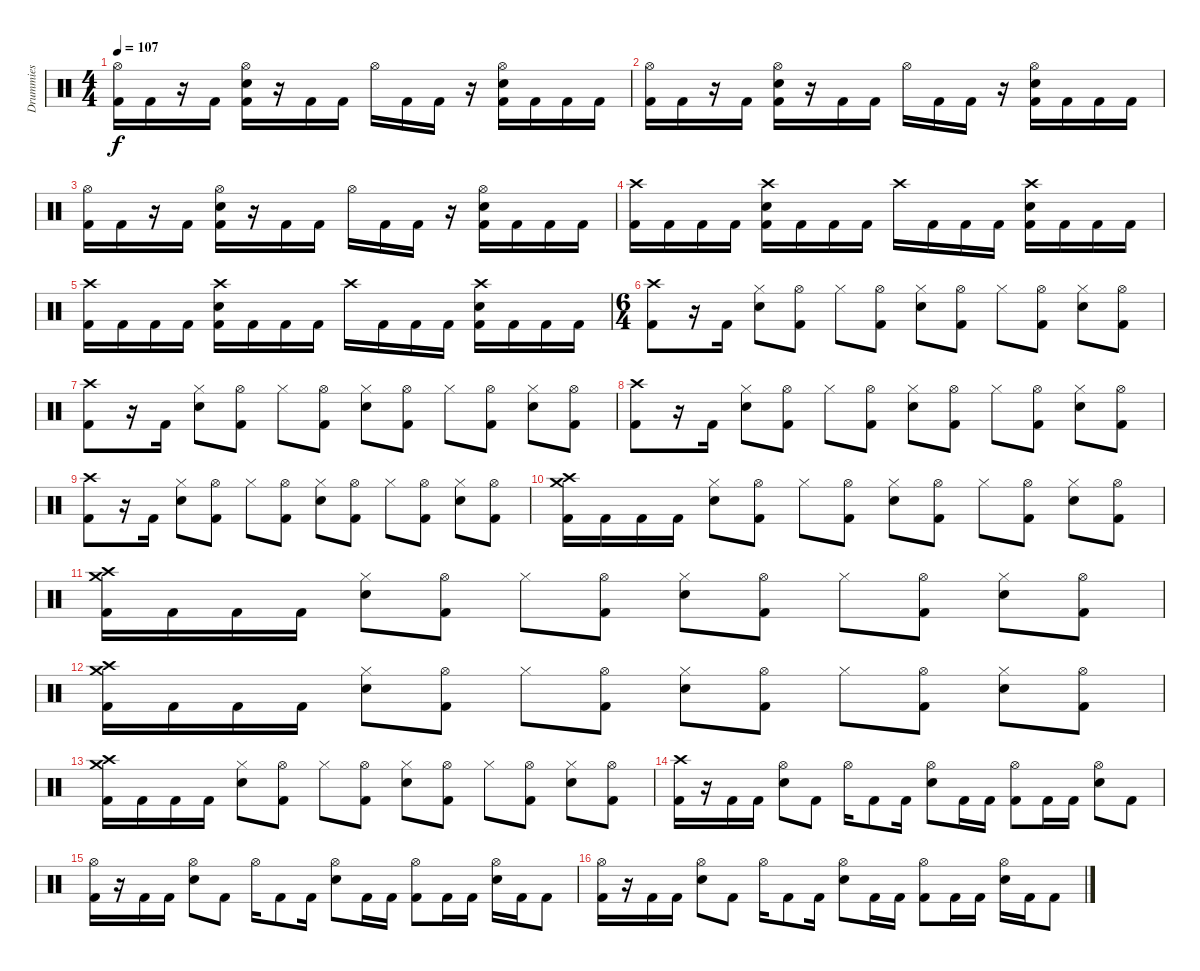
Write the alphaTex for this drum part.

\track ("Drummies" "Drummies") {instrument percussion}
\staff {score}
\articulation defaults
\ts (4 4)
\tempo 107
\clef neutral
\ks c
("Hi-Hat (open)" "Kick (hit) 2").16{dy f} "Kick (hit) 2".16 r.16 "Kick (hit) 2".16 ("Hi-Hat (open)" "Electric Snare (hit)" "Kick (hit) 2").16 r.16 "Kick (hit) 2".16 "Kick (hit) 2".16 "Hi-Hat (open)".16 "Kick (hit) 2".16 "Kick (hit) 2".16 r.16 ("Hi-Hat (open)" "Electric Snare (hit)" "Kick (hit) 2").16 "Kick (hit) 2".16 "Kick (hit) 2".16 "Kick (hit) 2".16 |
("Hi-Hat (open)" "Kick (hit) 2").16 "Kick (hit) 2".16 r.16 "Kick (hit) 2".16 ("Hi-Hat (open)" "Electric Snare (hit)" "Kick (hit) 2").16 r.16 "Kick (hit) 2".16 "Kick (hit) 2".16 "Hi-Hat (open)".16 "Kick (hit) 2".16 "Kick (hit) 2".16 r.16 ("Hi-Hat (open)" "Electric Snare (hit)" "Kick (hit) 2").16 "Kick (hit) 2".16 "Kick (hit) 2".16 "Kick (hit) 2".16 |
("Hi-Hat (open)" "Kick (hit) 2").16 "Kick (hit) 2".16 r.16 "Kick (hit) 2".16 ("Hi-Hat (open)" "Electric Snare (hit)" "Kick (hit) 2").16 r.16 "Kick (hit) 2".16 "Kick (hit) 2".16 "Hi-Hat (open)".16 "Kick (hit) 2".16 "Kick (hit) 2".16 r.16 ("Hi-Hat (open)" "Electric Snare (hit)" "Kick (hit) 2").16 "Kick (hit) 2".16 "Kick (hit) 2".16 "Kick (hit) 2".16 |
("Crash high (hit)" "Kick (hit) 2").16 "Kick (hit) 2".16 "Kick (hit) 2".16 "Kick (hit) 2".16 ("Electric Snare (hit)" "Crash high (hit)" "Kick (hit) 2").16 "Kick (hit) 2".16 "Kick (hit) 2".16 "Kick (hit) 2".16 "Crash high (hit)".16 "Kick (hit) 2".16 "Kick (hit) 2".16 "Kick (hit) 2".16 ("Electric Snare (hit)" "Crash high (hit)" "Kick (hit) 2").16 "Kick (hit) 2".16 "Kick (hit) 2".16 "Kick (hit) 2".16 |
("Crash high (hit)" "Kick (hit) 2").16 "Kick (hit) 2".16 "Kick (hit) 2".16 "Kick (hit) 2".16 ("Electric Snare (hit)" "Crash high (hit)" "Kick (hit) 2").16 "Kick (hit) 2".16 "Kick (hit) 2".16 "Kick (hit) 2".16 "Crash high (hit)".16 "Kick (hit) 2".16 "Kick (hit) 2".16 "Kick (hit) 2".16 ("Electric Snare (hit)" "Crash high (hit)" "Kick (hit) 2").16 "Kick (hit) 2".16 "Kick (hit) 2".16 "Kick (hit) 2".16 |
\ts (6 4)
("Crash high (hit)" "Kick (hit) 2").8 r.16 "Kick (hit) 2".16 ("Hi-Hat (closed)" "Electric Snare (hit)").8 ("Hi-Hat (open)" "Kick (hit) 2").8 "Hi-Hat (closed)".8 ("Hi-Hat (open)" "Kick (hit) 2").8 ("Hi-Hat (closed)" "Electric Snare (hit)").8 ("Hi-Hat (open)" "Kick (hit) 2").8 "Hi-Hat (closed)".8 ("Hi-Hat (open)" "Kick (hit) 2").8 ("Hi-Hat (closed)" "Electric Snare (hit)").8 ("Hi-Hat (open)" "Kick (hit) 2").8 |
("Crash high (hit)" "Kick (hit) 2").8 r.16 "Kick (hit) 2".16 ("Hi-Hat (closed)" "Electric Snare (hit)").8 ("Hi-Hat (open)" "Kick (hit) 2").8 "Hi-Hat (closed)".8 ("Hi-Hat (open)" "Kick (hit) 2").8 ("Hi-Hat (closed)" "Electric Snare (hit)").8 ("Hi-Hat (open)" "Kick (hit) 2").8 "Hi-Hat (closed)".8 ("Hi-Hat (open)" "Kick (hit) 2").8 ("Hi-Hat (closed)" "Electric Snare (hit)").8 ("Hi-Hat (open)" "Kick (hit) 2").8 |
("Crash high (hit)" "Kick (hit) 2").8 r.16 "Kick (hit) 2".16 ("Hi-Hat (closed)" "Electric Snare (hit)").8 ("Hi-Hat (open)" "Kick (hit) 2").8 "Hi-Hat (closed)".8 ("Hi-Hat (open)" "Kick (hit) 2").8 ("Hi-Hat (closed)" "Electric Snare (hit)").8 ("Hi-Hat (open)" "Kick (hit) 2").8 "Hi-Hat (closed)".8 ("Hi-Hat (open)" "Kick (hit) 2").8 ("Hi-Hat (closed)" "Electric Snare (hit)").8 ("Hi-Hat (open)" "Kick (hit) 2").8 |
("Crash high (hit)" "Kick (hit) 2").8 r.16 "Kick (hit) 2".16 ("Hi-Hat (closed)" "Electric Snare (hit)").8 ("Hi-Hat (open)" "Kick (hit) 2").8 "Hi-Hat (closed)".8 ("Hi-Hat (open)" "Kick (hit) 2").8 ("Hi-Hat (closed)" "Electric Snare (hit)").8 ("Hi-Hat (open)" "Kick (hit) 2").8 "Hi-Hat (closed)".8 ("Hi-Hat (open)" "Kick (hit) 2").8 ("Hi-Hat (closed)" "Electric Snare (hit)").8 ("Hi-Hat (open)" "Kick (hit) 2").8 |
("Crash medium (hit)" "Crash high (hit)" "Kick (hit) 2").16 "Kick (hit) 2".16 "Kick (hit) 2".16 "Kick (hit) 2".16 ("Hi-Hat (closed)" "Electric Snare (hit)").8 ("Hi-Hat (open)" "Kick (hit) 2").8 "Hi-Hat (closed)".8 ("Hi-Hat (open)" "Kick (hit) 2").8 ("Hi-Hat (closed)" "Electric Snare (hit)").8 ("Hi-Hat (open)" "Kick (hit) 2").8 "Hi-Hat (closed)".8 ("Hi-Hat (open)" "Kick (hit) 2").8 ("Hi-Hat (closed)" "Electric Snare (hit)").8 ("Hi-Hat (open)" "Kick (hit) 2").8 |
("Crash medium (hit)" "Crash high (hit)" "Kick (hit) 2").16 "Kick (hit) 2".16 "Kick (hit) 2".16 "Kick (hit) 2".16 ("Hi-Hat (closed)" "Electric Snare (hit)").8 ("Hi-Hat (open)" "Kick (hit) 2").8 "Hi-Hat (closed)".8 ("Hi-Hat (open)" "Kick (hit) 2").8 ("Hi-Hat (closed)" "Electric Snare (hit)").8 ("Hi-Hat (open)" "Kick (hit) 2").8 "Hi-Hat (closed)".8 ("Hi-Hat (open)" "Kick (hit) 2").8 ("Hi-Hat (closed)" "Electric Snare (hit)").8 ("Hi-Hat (open)" "Kick (hit) 2").8 |
("Crash medium (hit)" "Crash high (hit)" "Kick (hit) 2").16 "Kick (hit) 2".16 "Kick (hit) 2".16 "Kick (hit) 2".16 ("Hi-Hat (closed)" "Electric Snare (hit)").8 ("Hi-Hat (open)" "Kick (hit) 2").8 "Hi-Hat (closed)".8 ("Hi-Hat (open)" "Kick (hit) 2").8 ("Hi-Hat (closed)" "Electric Snare (hit)").8 ("Hi-Hat (open)" "Kick (hit) 2").8 "Hi-Hat (closed)".8 ("Hi-Hat (open)" "Kick (hit) 2").8 ("Hi-Hat (closed)" "Electric Snare (hit)").8 ("Hi-Hat (open)" "Kick (hit) 2").8 |
("Crash medium (hit)" "Crash high (hit)" "Kick (hit) 2").16 "Kick (hit) 2".16 "Kick (hit) 2".16 "Kick (hit) 2".16 ("Hi-Hat (closed)" "Electric Snare (hit)").8 ("Hi-Hat (open)" "Kick (hit) 2").8 "Hi-Hat (closed)".8 ("Hi-Hat (open)" "Kick (hit) 2").8 ("Hi-Hat (closed)" "Electric Snare (hit)").8 ("Hi-Hat (open)" "Kick (hit) 2").8 "Hi-Hat (closed)".8 ("Hi-Hat (open)" "Kick (hit) 2").8 ("Hi-Hat (closed)" "Electric Snare (hit)").8 ("Hi-Hat (open)" "Kick (hit) 2").8 |
("Crash high (hit)" "Kick (hit) 2").16 r.16 "Kick (hit) 2".16 "Kick (hit) 2".16 ("Hi-Hat (open)" "Electric Snare (hit)").8 "Kick (hit) 2".8 "Hi-Hat (open)".16 "Kick (hit) 2".8 "Kick (hit) 2".16 ("Hi-Hat (open)" "Electric Snare (hit)").8 "Kick (hit) 2".16 "Kick (hit) 2".16 ("Hi-Hat (open)" "Kick (hit) 2").8 "Kick (hit) 2".16 "Kick (hit) 2".16 ("Hi-Hat (open)" "Electric Snare (hit)").8 "Kick (hit) 2".8 |
("Hi-Hat (open)" "Kick (hit) 2").16 r.16 "Kick (hit) 2".16 "Kick (hit) 2".16 ("Hi-Hat (open)" "Electric Snare (hit)").8 "Kick (hit) 2".8 "Hi-Hat (open)".16 "Kick (hit) 2".8 "Kick (hit) 2".16 ("Hi-Hat (open)" "Electric Snare (hit)").8 "Kick (hit) 2".16 "Kick (hit) 2".16 ("Hi-Hat (open)" "Kick (hit) 2").8 "Kick (hit) 2".16 "Kick (hit) 2".16 ("Hi-Hat (open)" "Electric Snare (hit)").16 "Kick (hit) 2".16 "Kick (hit) 2".8 |
("Hi-Hat (open)" "Kick (hit) 2").16 r.16 "Kick (hit) 2".16 "Kick (hit) 2".16 ("Hi-Hat (open)" "Electric Snare (hit)").8 "Kick (hit) 2".8 "Hi-Hat (open)".16 "Kick (hit) 2".8 "Kick (hit) 2".16 ("Hi-Hat (open)" "Electric Snare (hit)").8 "Kick (hit) 2".16 "Kick (hit) 2".16 ("Hi-Hat (open)" "Kick (hit) 2").8 "Kick (hit) 2".16 "Kick (hit) 2".16 ("Hi-Hat (open)" "Electric Snare (hit)").16 "Kick (hit) 2".16 "Kick (hit) 2".8
